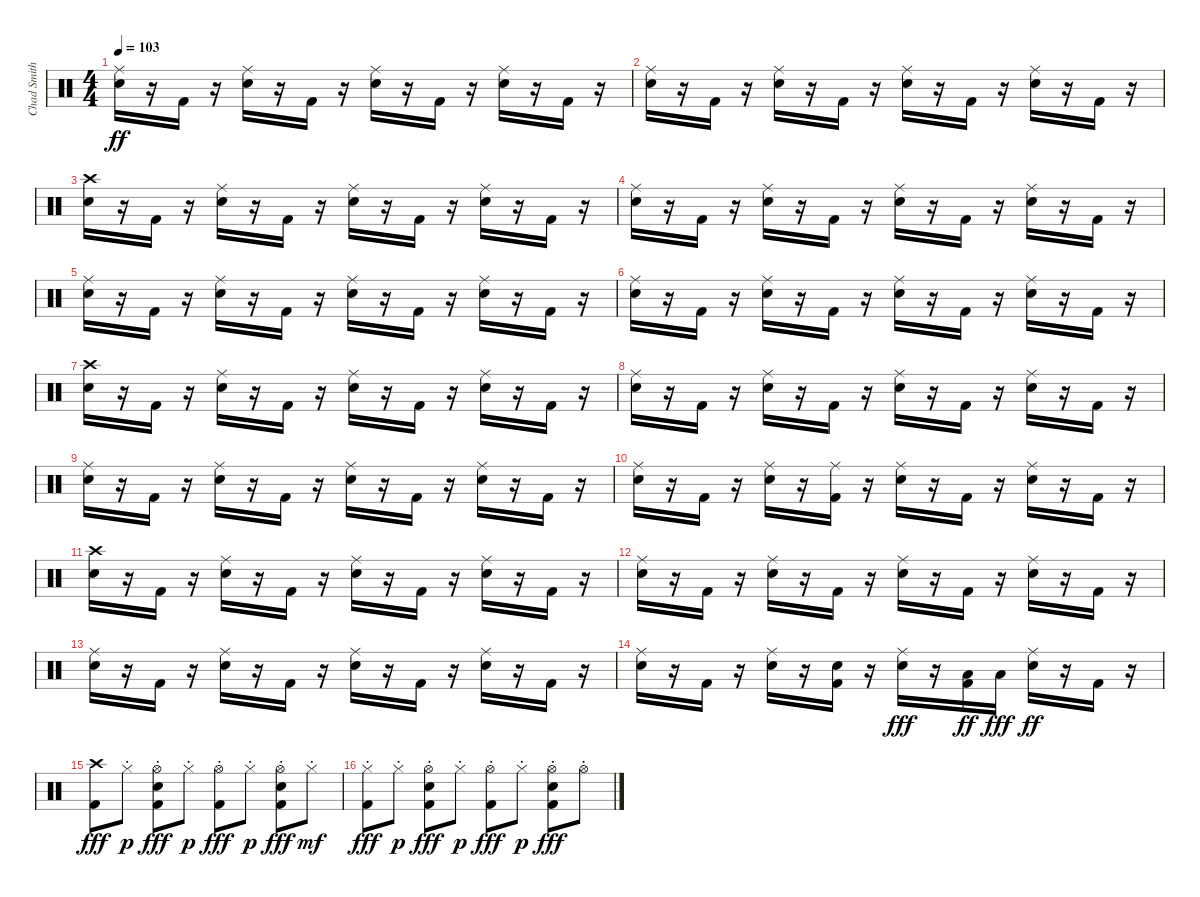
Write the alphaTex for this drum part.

\track ("Chad Smith - Drums" "Chad Smith") {instrument percussion}
\staff {score}
\articulation defaults
\ts (4 4)
\tempo 103
\clef neutral
\ks c
("Ride (middle)" "Snare (hit) 2").16{dy ff} r.16 "Kick (hit) 2".16 r.16 ("Ride (middle)" "Snare (hit) 2").16 r.16 "Kick (hit) 2".16 r.16 ("Ride (middle)" "Snare (hit) 2").16 r.16 "Kick (hit) 2".16 r.16 ("Ride (middle)" "Snare (hit) 2").16 r.16 "Kick (hit) 2".16 r.16 |
("Ride (middle)" "Snare (hit) 2").16 r.16 "Kick (hit) 2".16 r.16 ("Ride (middle)" "Snare (hit) 2").16 r.16 "Kick (hit) 2".16 r.16 ("Ride (middle)" "Snare (hit) 2").16 r.16 "Kick (hit) 2".16 r.16 ("Ride (middle)" "Snare (hit) 2").16 r.16 "Kick (hit) 2".16 r.16 |
("Crash high (hit)" "Snare (hit) 2").16 r.16 "Kick (hit) 2".16 r.16 ("Ride (middle)" "Snare (hit) 2").16 r.16 "Kick (hit) 2".16 r.16 ("Ride (middle)" "Snare (hit) 2").16 r.16 "Kick (hit) 2".16 r.16 ("Ride (middle)" "Snare (hit) 2").16 r.16 "Kick (hit) 2".16 r.16 |
("Ride (middle)" "Snare (hit) 2").16 r.16 "Kick (hit) 2".16 r.16 ("Ride (middle)" "Snare (hit) 2").16 r.16 "Kick (hit) 2".16 r.16 ("Ride (middle)" "Snare (hit) 2").16 r.16 "Kick (hit) 2".16 r.16 ("Ride (middle)" "Snare (hit) 2").16 r.16 "Kick (hit) 2".16 r.16 |
("Ride (middle)" "Snare (hit) 2").16 r.16 "Kick (hit) 2".16 r.16 ("Ride (middle)" "Snare (hit) 2").16 r.16 "Kick (hit) 2".16 r.16 ("Ride (middle)" "Snare (hit) 2").16 r.16 "Kick (hit) 2".16 r.16 ("Ride (middle)" "Snare (hit) 2").16 r.16 "Kick (hit) 2".16 r.16 |
("Ride (middle)" "Snare (hit) 2").16 r.16 "Kick (hit) 2".16 r.16 ("Ride (middle)" "Snare (hit) 2").16 r.16 "Kick (hit) 2".16 r.16 ("Ride (middle)" "Snare (hit) 2").16 r.16 "Kick (hit) 2".16 r.16 ("Ride (middle)" "Snare (hit) 2").16 r.16 "Kick (hit) 2".16 r.16 |
("Crash high (hit)" "Snare (hit) 2").16 r.16 "Kick (hit) 2".16 r.16 ("Ride (middle)" "Snare (hit) 2").16 r.16 "Kick (hit) 2".16 r.16 ("Ride (middle)" "Snare (hit) 2").16 r.16 "Kick (hit) 2".16 r.16 ("Ride (middle)" "Snare (hit) 2").16 r.16 "Kick (hit) 2".16 r.16 |
("Ride (middle)" "Snare (hit) 2").16 r.16 "Kick (hit) 2".16 r.16 ("Ride (middle)" "Snare (hit) 2").16 r.16 "Kick (hit) 2".16 r.16 ("Ride (middle)" "Snare (hit) 2").16 r.16 "Kick (hit) 2".16 r.16 ("Ride (middle)" "Snare (hit) 2").16 r.16 "Kick (hit) 2".16 r.16 |
("Ride (middle)" "Snare (hit) 2").16 r.16 "Kick (hit) 2".16 r.16 ("Ride (middle)" "Snare (hit) 2").16 r.16 "Kick (hit) 2".16 r.16 ("Ride (middle)" "Snare (hit) 2").16 r.16 "Kick (hit) 2".16 r.16 ("Ride (middle)" "Snare (hit) 2").16 r.16 "Kick (hit) 2".16 r.16 |
("Ride (middle)" "Snare (hit) 2").16 r.16 "Kick (hit) 2".16 r.16 ("Ride (middle)" "Snare (hit) 2").16 r.16 ("Ride (middle)" "Kick (hit) 2").16 r.16 ("Ride (middle)" "Snare (hit) 2").16 r.16 "Kick (hit) 2".16 r.16 ("Ride (middle)" "Snare (hit) 2").16 r.16 "Kick (hit) 2".16 r.16 |
("Crash high (hit)" "Snare (hit) 2").16 r.16 "Kick (hit) 2".16 r.16 ("Ride (middle)" "Snare (hit) 2").16 r.16 "Kick (hit) 2".16 r.16 ("Ride (middle)" "Snare (hit) 2").16 r.16 "Kick (hit) 2".16 r.16 ("Ride (middle)" "Snare (hit) 2").16 r.16 "Kick (hit) 2".16 r.16 |
("Ride (middle)" "Snare (hit) 2").16 r.16 "Kick (hit) 2".16 r.16 ("Ride (middle)" "Snare (hit) 2").16 r.16 "Kick (hit) 2".16 r.16 ("Ride (middle)" "Snare (hit) 2").16 r.16 "Kick (hit) 2".16 r.16 ("Ride (middle)" "Snare (hit) 2").16 r.16 "Kick (hit) 2".16 r.16 |
("Ride (middle)" "Snare (hit) 2").16 r.16 "Kick (hit) 2".16 r.16 ("Ride (middle)" "Snare (hit) 2").16 r.16 "Kick (hit) 2".16 r.16 ("Ride (middle)" "Snare (hit) 2").16 r.16 "Kick (hit) 2".16 r.16 ("Ride (middle)" "Snare (hit) 2").16 r.16 "Kick (hit) 2".16 r.16 |
("Ride (middle)" "Snare (hit) 2").16 r.16 "Kick (hit) 2".16 r.16 ("Ride (middle)" "Snare (hit) 2").16 r.16 ("Snare (hit) 2" "Kick (hit) 2").16 r.16 ("Ride (middle)" "Snare (hit) 2").16{dy fff} r.16 ("Low Tom (hit)" "Kick (hit) 2").16{dy ff} "Low Tom (hit)".16{dy fff} ("Ride (middle)" "Snare (hit) 2").16{dy ff} r.16 "Kick (hit) 2".16 r.16 |
("Crash high (hit)" "Kick (hit) 2").8{dy fff} "Hi-Hat (closed)"{st}.8{dy p} ("Hi-Hat (open)"{st} "Snare (hit) 2" "Kick (hit) 2").8{dy fff} "Hi-Hat (closed)"{st}.8{dy p} ("Hi-Hat (open)"{st} "Kick (hit) 2").8{dy fff} "Hi-Hat (closed)"{st}.8{dy p} ("Hi-Hat (open)"{st} "Snare (hit) 2" "Kick (hit) 2").8{dy fff} "Hi-Hat (closed)"{st}.8{dy mf} |
("Hi-Hat (closed)"{st} "Kick (hit) 2").8{dy fff} "Hi-Hat (closed)"{st}.8{dy p} ("Hi-Hat (open)"{st} "Snare (hit) 2" "Kick (hit) 2").8{dy fff} "Hi-Hat (closed)"{st}.8{dy p} ("Hi-Hat (open)"{st} "Kick (hit) 2").8{dy fff} "Hi-Hat (closed)"{st}.8{dy p} ("Hi-Hat (open)"{st} "Snare (hit) 2" "Kick (hit) 2").8{dy fff} "Hi-Hat (open)"{st}.8
